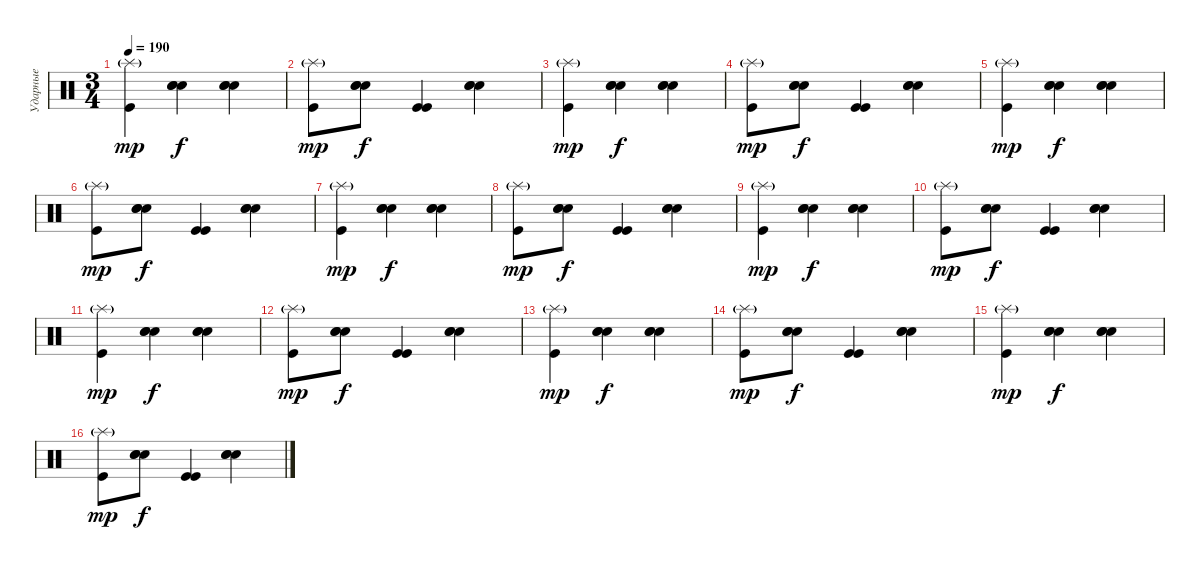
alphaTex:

\track ("Ударные" "Ударные") {instrument percussion}
\staff {score}
\articulation defaults
\ts (3 4)
\tempo 190
\clef neutral
\ks c
("Splash (hit)"{g} "Kick (hit)").4{dy mp} ("Snare (hit) 2" "Snare (hit) 2" "Snare (hit) 2").4{dy f} ("Snare (hit) 2" "Snare (hit) 2" "Snare (hit) 2").4 |
("Splash (hit)"{g} "Kick (hit)").8{dy mp} ("Snare (hit) 2" "Snare (hit) 2" "Snare (hit) 2").8{dy f} ("Kick (hit)" "Kick (hit)").4 ("Snare (hit) 2" "Snare (hit) 2" "Snare (hit) 2").4 |
("Splash (hit)"{g} "Kick (hit)").4{dy mp} ("Snare (hit) 2" "Snare (hit) 2" "Snare (hit) 2").4{dy f} ("Snare (hit) 2" "Snare (hit) 2" "Snare (hit) 2").4 |
("Splash (hit)"{g} "Kick (hit)").8{dy mp} ("Snare (hit) 2" "Snare (hit) 2" "Snare (hit) 2").8{dy f} ("Kick (hit)" "Kick (hit)").4 ("Snare (hit) 2" "Snare (hit) 2" "Snare (hit) 2").4 |
("Splash (hit)"{g} "Kick (hit)").4{dy mp} ("Snare (hit) 2" "Snare (hit) 2" "Snare (hit) 2").4{dy f} ("Snare (hit) 2" "Snare (hit) 2" "Snare (hit) 2").4 |
("Splash (hit)"{g} "Kick (hit)").8{dy mp} ("Snare (hit) 2" "Snare (hit) 2" "Snare (hit) 2").8{dy f} ("Kick (hit)" "Kick (hit)").4 ("Snare (hit) 2" "Snare (hit) 2" "Snare (hit) 2").4 |
("Splash (hit)"{g} "Kick (hit)").4{dy mp} ("Snare (hit) 2" "Snare (hit) 2" "Snare (hit) 2").4{dy f} ("Snare (hit) 2" "Snare (hit) 2" "Snare (hit) 2").4 |
("Splash (hit)"{g} "Kick (hit)").8{dy mp} ("Snare (hit) 2" "Snare (hit) 2" "Snare (hit) 2").8{dy f} ("Kick (hit)" "Kick (hit)").4 ("Snare (hit) 2" "Snare (hit) 2" "Snare (hit) 2").4 |
("Splash (hit)"{g} "Kick (hit)").4{dy mp} ("Snare (hit) 2" "Snare (hit) 2" "Snare (hit) 2").4{dy f} ("Snare (hit) 2" "Snare (hit) 2" "Snare (hit) 2").4 |
("Splash (hit)"{g} "Kick (hit)").8{dy mp} ("Snare (hit) 2" "Snare (hit) 2" "Snare (hit) 2").8{dy f} ("Kick (hit)" "Kick (hit)").4 ("Snare (hit) 2" "Snare (hit) 2" "Snare (hit) 2").4 |
("Splash (hit)"{g} "Kick (hit)").4{dy mp} ("Snare (hit) 2" "Snare (hit) 2" "Snare (hit) 2").4{dy f} ("Snare (hit) 2" "Snare (hit) 2" "Snare (hit) 2").4 |
("Splash (hit)"{g} "Kick (hit)").8{dy mp} ("Snare (hit) 2" "Snare (hit) 2" "Snare (hit) 2").8{dy f} ("Kick (hit)" "Kick (hit)").4 ("Snare (hit) 2" "Snare (hit) 2" "Snare (hit) 2").4 |
("Splash (hit)"{g} "Kick (hit)").4{dy mp} ("Snare (hit) 2" "Snare (hit) 2" "Snare (hit) 2").4{dy f} ("Snare (hit) 2" "Snare (hit) 2" "Snare (hit) 2").4 |
("Splash (hit)"{g} "Kick (hit)").8{dy mp} ("Snare (hit) 2" "Snare (hit) 2" "Snare (hit) 2").8{dy f} ("Kick (hit)" "Kick (hit)").4 ("Snare (hit) 2" "Snare (hit) 2" "Snare (hit) 2").4 |
("Splash (hit)"{g} "Kick (hit)").4{dy mp} ("Snare (hit) 2" "Snare (hit) 2" "Snare (hit) 2").4{dy f} ("Snare (hit) 2" "Snare (hit) 2" "Snare (hit) 2").4 |
("Splash (hit)"{g} "Kick (hit)").8{dy mp} ("Snare (hit) 2" "Snare (hit) 2" "Snare (hit) 2").8{dy f} ("Kick (hit)" "Kick (hit)").4 ("Snare (hit) 2" "Snare (hit) 2" "Snare (hit) 2").4
